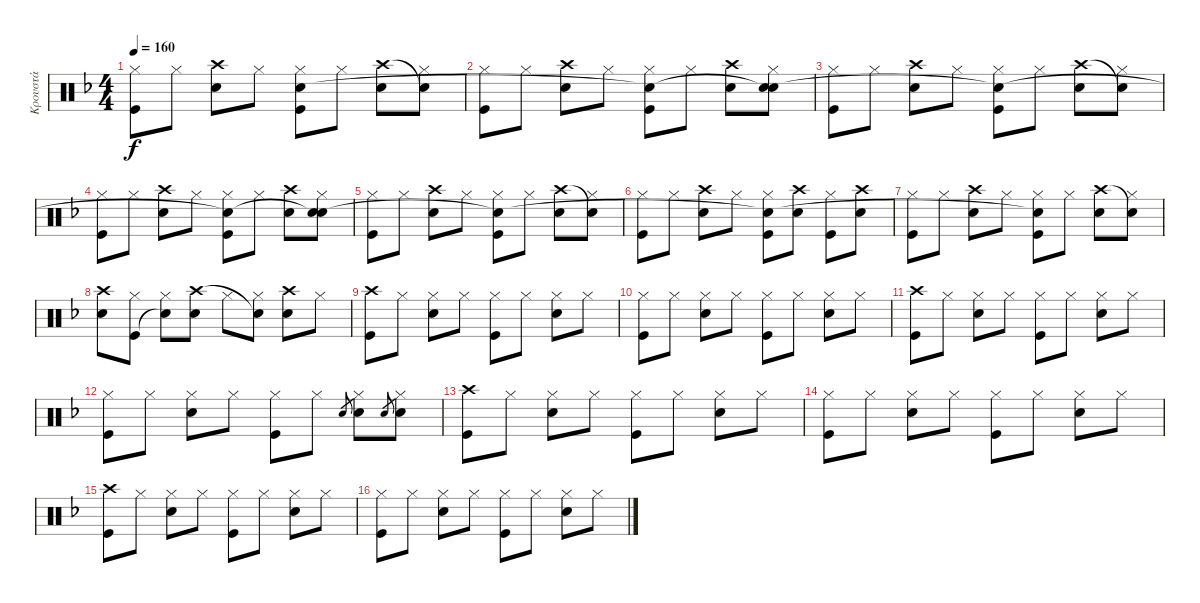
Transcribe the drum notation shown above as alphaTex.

\track ("Κρουστά" "Κρουστά") {instrument percussion}
\staff {score}
\articulation defaults
\ts (4 4)
\tempo 160
\clef neutral
\ks dminor
("Hi-Hat (closed)" "Kick (hit)").8{dy f} "Hi-Hat (closed)".8 ("Snare (hit) 2" "Crash high (hit)").8 "Hi-Hat (closed)".8 ("Hi-Hat (closed)" "Kick (hit)" "Snare (hit)").8 "Hi-Hat (closed)".8 ("Snare (hit) 2" "Crash high (hit)").8 ("Hi-Hat (closed)" "Snare (hit)"{t}).8 |
("Hi-Hat (closed)" "Kick (hit)").8 "Hi-Hat (closed)".8 ("Snare (hit) 2" "Crash high (hit)").8 "Hi-Hat (closed)".8 ("Hi-Hat (closed)" "Kick (hit)" "Snare (hit)"{t}).8 "Hi-Hat (closed)".8 ("Snare (hit) 2" "Crash high (hit)").8 ("Hi-Hat (closed)" "Snare (hit) 2" "Snare (hit)"{t}).8 |
("Hi-Hat (closed)" "Kick (hit)").8 "Hi-Hat (closed)".8 ("Snare (hit) 2" "Crash high (hit)").8 "Hi-Hat (closed)".8 ("Hi-Hat (closed)" "Kick (hit)" "Snare (hit)"{t}).8 "Hi-Hat (closed)".8 ("Snare (hit) 2" "Crash high (hit)").8 ("Hi-Hat (closed)" "Snare (hit)"{t}).8 |
("Hi-Hat (closed)" "Kick (hit)").8 "Hi-Hat (closed)".8 ("Snare (hit) 2" "Crash high (hit)").8 "Hi-Hat (closed)".8 ("Hi-Hat (closed)" "Kick (hit)" "Snare (hit)"{t}).8 "Hi-Hat (closed)".8 ("Snare (hit) 2" "Crash high (hit)").8 ("Hi-Hat (closed)" "Snare (hit) 2" "Snare (hit)"{t}).8 |
("Hi-Hat (closed)" "Kick (hit)").8 "Hi-Hat (closed)".8 ("Snare (hit) 2" "Crash high (hit)").8 "Hi-Hat (closed)".8 ("Hi-Hat (closed)" "Kick (hit)" "Snare (hit)"{t}).8 "Hi-Hat (closed)".8 ("Snare (hit) 2" "Crash high (hit)").8 ("Hi-Hat (closed)" "Snare (hit)"{t}).8 |
("Hi-Hat (closed)" "Kick (hit)").8 "Hi-Hat (closed)".8 ("Snare (hit) 2" "Crash high (hit)").8 "Hi-Hat (closed)".8 ("Hi-Hat (closed)" "Kick (hit)" "Snare (hit)"{t}).8 ("Snare (hit) 2" "Crash high (hit)").8 ("Hi-Hat (closed)" "Kick (hit)").8 ("Snare (hit) 2" "Crash high (hit)").8 |
("Hi-Hat (closed)" "Kick (hit)").8 "Hi-Hat (closed)".8 ("Snare (hit) 2" "Crash high (hit)").8 "Hi-Hat (closed)".8 ("Hi-Hat (closed)" "Kick (hit)" "Snare (hit)"{t}).8 "Hi-Hat (closed)".8 ("Snare (hit) 2" "Crash high (hit)").8 ("Hi-Hat (closed)" "Snare (hit)"{t}).8 |
("Snare (hit) 2" "Crash high (hit)").8 ("Hi-Hat (closed)" "Kick (hit)").8 ("Hi-Hat (closed)" "Snare (hit)"{t}).8 ("Snare (hit) 2" "Crash high (hit)").8 "Hi-Hat (closed)".8 ("Hi-Hat (closed)" "Snare (hit)"{t}).8 ("Snare (hit) 2" "Crash high (hit)").8 "Hi-Hat (closed)".8 |
("Crash high (hit)" "Kick (hit)").8 "Hi-Hat (closed)".8 ("Hi-Hat (closed)" "Snare (hit) 2").8 "Hi-Hat (closed)".8 ("Hi-Hat (closed)" "Kick (hit)").8 "Hi-Hat (closed)".8 ("Hi-Hat (closed)" "Snare (hit) 2").8 "Hi-Hat (closed)".8 |
("Hi-Hat (closed)" "Kick (hit)").8 "Hi-Hat (closed)".8 ("Hi-Hat (closed)" "Snare (hit) 2").8 "Hi-Hat (closed)".8 ("Hi-Hat (closed)" "Kick (hit)").8 "Hi-Hat (closed)".8 ("Hi-Hat (closed)" "Snare (hit) 2").8 "Hi-Hat (closed)".8 |
("Crash high (hit)" "Kick (hit)").8 "Hi-Hat (closed)".8 ("Hi-Hat (closed)" "Snare (hit) 2").8 "Hi-Hat (closed)".8 ("Hi-Hat (closed)" "Kick (hit)").8 "Hi-Hat (closed)".8 ("Hi-Hat (closed)" "Snare (hit) 2").8 "Hi-Hat (closed)".8 |
("Hi-Hat (closed)" "Kick (hit)").8 "Hi-Hat (closed)".8 ("Hi-Hat (closed)" "Snare (hit) 2").8 "Hi-Hat (closed)".8 ("Hi-Hat (closed)" "Kick (hit)").8 "Hi-Hat (closed)".8 "Snare (hit) 2".8{gr} ("Hi-Hat (closed)" "Snare (hit) 2").8 "Snare (hit) 2".8{gr} ("Hi-Hat (closed)" "Snare (hit) 2").8 |
("Crash high (hit)" "Kick (hit)").8 "Hi-Hat (closed)".8 ("Hi-Hat (closed)" "Snare (hit) 2").8 "Hi-Hat (closed)".8 ("Hi-Hat (closed)" "Kick (hit)").8 "Hi-Hat (closed)".8 ("Hi-Hat (closed)" "Snare (hit) 2").8 "Hi-Hat (closed)".8 |
("Hi-Hat (closed)" "Kick (hit)").8 "Hi-Hat (closed)".8 ("Hi-Hat (closed)" "Snare (hit) 2").8 "Hi-Hat (closed)".8 ("Hi-Hat (closed)" "Kick (hit)").8 "Hi-Hat (closed)".8 ("Hi-Hat (closed)" "Snare (hit) 2").8 "Hi-Hat (closed)".8 |
("Crash high (hit)" "Kick (hit)").8 "Hi-Hat (closed)".8 ("Hi-Hat (closed)" "Snare (hit) 2").8 "Hi-Hat (closed)".8 ("Hi-Hat (closed)" "Kick (hit)").8 "Hi-Hat (closed)".8 ("Hi-Hat (closed)" "Snare (hit) 2").8 "Hi-Hat (closed)".8 |
("Hi-Hat (closed)" "Kick (hit)").8 "Hi-Hat (closed)".8 ("Hi-Hat (closed)" "Snare (hit) 2").8 "Hi-Hat (closed)".8 ("Hi-Hat (closed)" "Kick (hit)").8 "Hi-Hat (closed)".8 ("Hi-Hat (closed)" "Snare (hit) 2").8 "Hi-Hat (closed)".8
